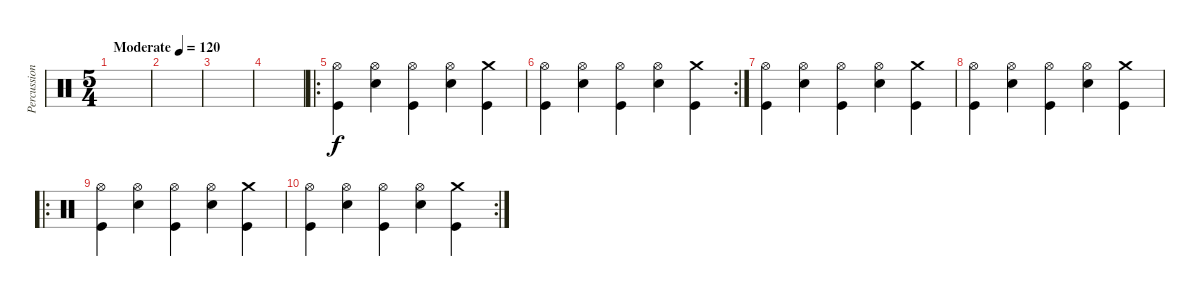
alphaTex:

\track ("Percussion" "Percussion") {instrument percussion}
\staff {score}
\articulation defaults
\ts (5 4)
\tempo (120 "Moderate")
\clef neutral
\ks c
|
|
|
|
\ro
("Hi-Hat (open)" "Kick (hit)").4 ("Hi-Hat (open)" "Snare (hit) 2").4 ("Hi-Hat (open)" "Kick (hit)").4 ("Hi-Hat (open)" "Snare (hit) 2").4 ("Crash medium (hit)" "Kick (hit)").4 |
\rc 2
("Hi-Hat (open)" "Kick (hit)").4 ("Hi-Hat (open)" "Snare (hit) 2").4 ("Hi-Hat (open)" "Kick (hit)").4 ("Hi-Hat (open)" "Snare (hit) 2").4 ("Crash medium (hit)" "Kick (hit)").4 |
("Hi-Hat (open)" "Kick (hit)").4 ("Hi-Hat (open)" "Snare (hit) 2").4 ("Hi-Hat (open)" "Kick (hit)").4 ("Hi-Hat (open)" "Snare (hit) 2").4 ("Crash medium (hit)" "Kick (hit)").4 |
("Hi-Hat (open)" "Kick (hit)").4 ("Hi-Hat (open)" "Snare (hit) 2").4 ("Hi-Hat (open)" "Kick (hit)").4 ("Hi-Hat (open)" "Snare (hit) 2").4 ("Crash medium (hit)" "Kick (hit)").4 |
\ro
("Hi-Hat (open)" "Kick (hit)").4 ("Hi-Hat (open)" "Snare (hit) 2").4 ("Hi-Hat (open)" "Kick (hit)").4 ("Hi-Hat (open)" "Snare (hit) 2").4 ("Crash medium (hit)" "Kick (hit)").4 |
\rc 2
("Hi-Hat (open)" "Kick (hit)").4 ("Hi-Hat (open)" "Snare (hit) 2").4 ("Hi-Hat (open)" "Kick (hit)").4 ("Hi-Hat (open)" "Snare (hit) 2").4 ("Crash medium (hit)" "Kick (hit)").4
